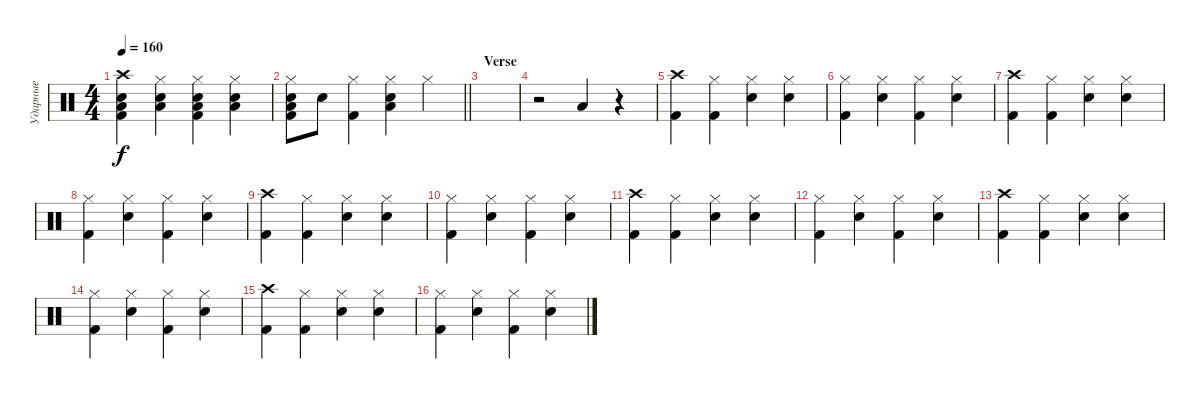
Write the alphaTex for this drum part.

\track ("Ударные" "Ударные") {instrument percussion}
\staff {score}
\articulation defaults
\ts (4 4)
\tempo 160
\clef neutral
\ks c
("Crash high (hit)" "Kick (hit) 2" "Snare (hit) 2" "Low Floor Tom (hit)").4{dy f} ("Hi-Hat (closed)" "Snare (hit) 2" "Low Floor Tom (hit)").4 ("Hi-Hat (closed)" "Kick (hit) 2" "Snare (hit) 2" "Low Floor Tom (hit)").4 ("Hi-Hat (closed)" "Snare (hit) 2" "Low Floor Tom (hit)").4 |
\barLineRight lightlight
("Hi-Hat (closed)" "Kick (hit) 2" "Snare (hit) 2" "Low Floor Tom (hit)").8 "Snare (hit) 2".8 ("Hi-Hat (closed)" "Kick (hit) 2").4 ("Hi-Hat (closed)" "Snare (hit) 2" "Low Floor Tom (hit)").4 "Hi-Hat (closed)".4 |
\section ("" "Verse")
|
r.2 "Low Floor Tom (hit)".4 r.4 |
("Crash high (hit)" "Kick (hit) 2").4 ("Hi-Hat (closed)" "Kick (hit) 2").4 ("Hi-Hat (closed)" "Snare (hit) 2").4 ("Hi-Hat (closed)" "Snare (hit) 2").4 |
("Hi-Hat (closed)" "Kick (hit) 2").4 ("Hi-Hat (closed)" "Snare (hit) 2").4 ("Hi-Hat (closed)" "Kick (hit) 2").4 ("Hi-Hat (closed)" "Snare (hit) 2").4 |
("Crash high (hit)" "Kick (hit) 2").4 ("Hi-Hat (closed)" "Kick (hit) 2").4 ("Hi-Hat (closed)" "Snare (hit) 2").4 ("Hi-Hat (closed)" "Snare (hit) 2").4 |
("Hi-Hat (closed)" "Kick (hit) 2").4 ("Hi-Hat (closed)" "Snare (hit) 2").4 ("Hi-Hat (closed)" "Kick (hit) 2").4 ("Hi-Hat (closed)" "Snare (hit) 2").4 |
("Crash high (hit)" "Kick (hit) 2").4 ("Hi-Hat (closed)" "Kick (hit) 2").4 ("Hi-Hat (closed)" "Snare (hit) 2").4 ("Hi-Hat (closed)" "Snare (hit) 2").4 |
("Hi-Hat (closed)" "Kick (hit) 2").4 ("Hi-Hat (closed)" "Snare (hit) 2").4 ("Hi-Hat (closed)" "Kick (hit) 2").4 ("Hi-Hat (closed)" "Snare (hit) 2").4 |
("Crash high (hit)" "Kick (hit) 2").4 ("Hi-Hat (closed)" "Kick (hit) 2").4 ("Hi-Hat (closed)" "Snare (hit) 2").4 ("Hi-Hat (closed)" "Snare (hit) 2").4 |
("Hi-Hat (closed)" "Kick (hit) 2").4 ("Hi-Hat (closed)" "Snare (hit) 2").4 ("Hi-Hat (closed)" "Kick (hit) 2").4 ("Hi-Hat (closed)" "Snare (hit) 2").4 |
("Crash high (hit)" "Kick (hit) 2").4 ("Hi-Hat (closed)" "Kick (hit) 2").4 ("Hi-Hat (closed)" "Snare (hit) 2").4 ("Hi-Hat (closed)" "Snare (hit) 2").4 |
("Hi-Hat (closed)" "Kick (hit) 2").4 ("Hi-Hat (closed)" "Snare (hit) 2").4 ("Hi-Hat (closed)" "Kick (hit) 2").4 ("Hi-Hat (closed)" "Snare (hit) 2").4 |
("Crash high (hit)" "Kick (hit) 2").4 ("Hi-Hat (closed)" "Kick (hit) 2").4 ("Hi-Hat (closed)" "Snare (hit) 2").4 ("Hi-Hat (closed)" "Snare (hit) 2").4 |
("Hi-Hat (closed)" "Kick (hit) 2").4 ("Hi-Hat (closed)" "Snare (hit) 2").4 ("Hi-Hat (closed)" "Kick (hit) 2").4 ("Hi-Hat (closed)" "Snare (hit) 2").4
